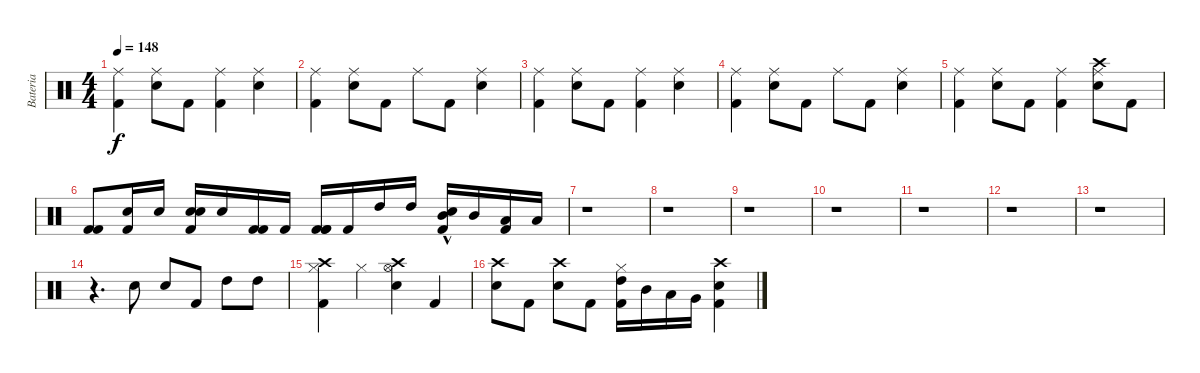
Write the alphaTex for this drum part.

\track ("Bateria" "Bateria") {instrument percussion}
\staff {score}
\articulation defaults
\ts (4 4)
\tempo 148
\clef neutral
\ks c
("Kick (hit) 2" "Ride (middle)").4{dy f} ("Electric Snare (hit)" "Ride (middle)").8 "Kick (hit) 2".8 ("Kick (hit) 2" "Ride (middle)").4 ("Electric Snare (hit)" "Ride (middle)").4 |
("Kick (hit) 2" "Ride (middle)").4 ("Electric Snare (hit)" "Ride (middle)").8 "Kick (hit) 2".8 "Ride (middle)".8 "Kick (hit) 2".8 ("Electric Snare (hit)" "Ride (middle)").4 |
("Kick (hit) 2" "Ride (middle)").4 ("Electric Snare (hit)" "Ride (middle)").8 "Kick (hit) 2".8 ("Kick (hit) 2" "Ride (middle)").4 ("Electric Snare (hit)" "Ride (middle)").4 |
("Kick (hit) 2" "Ride (middle)").4 ("Electric Snare (hit)" "Ride (middle)").8 "Kick (hit) 2".8 "Ride (middle)".8 "Kick (hit) 2".8 ("Electric Snare (hit)" "Ride (middle)").4 |
("Kick (hit) 2" "Ride (middle)").4 ("Electric Snare (hit)" "Ride (middle)").8 "Kick (hit) 2".8 ("Kick (hit) 2" "Ride (middle)").4 ("Electric Snare (hit)" "Ride (middle)" "Crash high (hit)").8 "Kick (hit) 2".8 |
("Kick (hit) 2" "Kick (hit) 2").8 ("Electric Snare (hit)" "Kick (hit) 2").16 "Electric Snare (hit)".16 ("Snare (hit) 2" "Snare (hit) 2" "Kick (hit) 2").16 "Snare (hit) 2".16 ("Kick (hit) 2" "Kick (hit) 2").16 "Kick (hit) 2".16 ("Kick (hit) 2" "Kick (hit) 2" "Kick (hit) 2").16 "Kick (hit) 2".16 "High Tom (hit)".16 "High Tom (hit)".16 ("Snare (hit) 2"{hac} "Mid Tom (hit)" "Kick (hit) 2").16 "Mid Tom (hit)".16 ("Low Tom (hit)" "Kick (hit) 2").16 "Low Tom (hit)".16 |
r.1 |
r.1 |
r.1 |
r.1 |
r.1 |
r.1 |
r.1 |
r.4{d} "Snare (hit) 2".8 "Electric Snare (hit)".8 "Kick (hit) 2".8 "High Tom (hit)".8 "High Tom (hit)".8 |
("Kick (hit) 2" "Crash high (hit)" "Hi-Hat (closed)").4 "Hi-Hat (closed)".4 ("Hi-Hat (open)" "Electric Snare (hit)" "Crash high (hit)").4 "Kick (hit) 2".4 |
("Electric Snare (hit)" "Crash high (hit)").8 "Kick (hit) 2".8 ("Electric Snare (hit)" "Crash high (hit)").8 "Kick (hit) 2".8 ("Hi-Hat (closed)" "Kick (hit) 2" "High Tom (hit)").16 "Mid Tom (hit)".16 "Low Tom (hit)".16 "Very Low Tom (hit)".16 ("Kick (hit) 2" "Electric Snare (hit)" "Crash high (hit)").4
